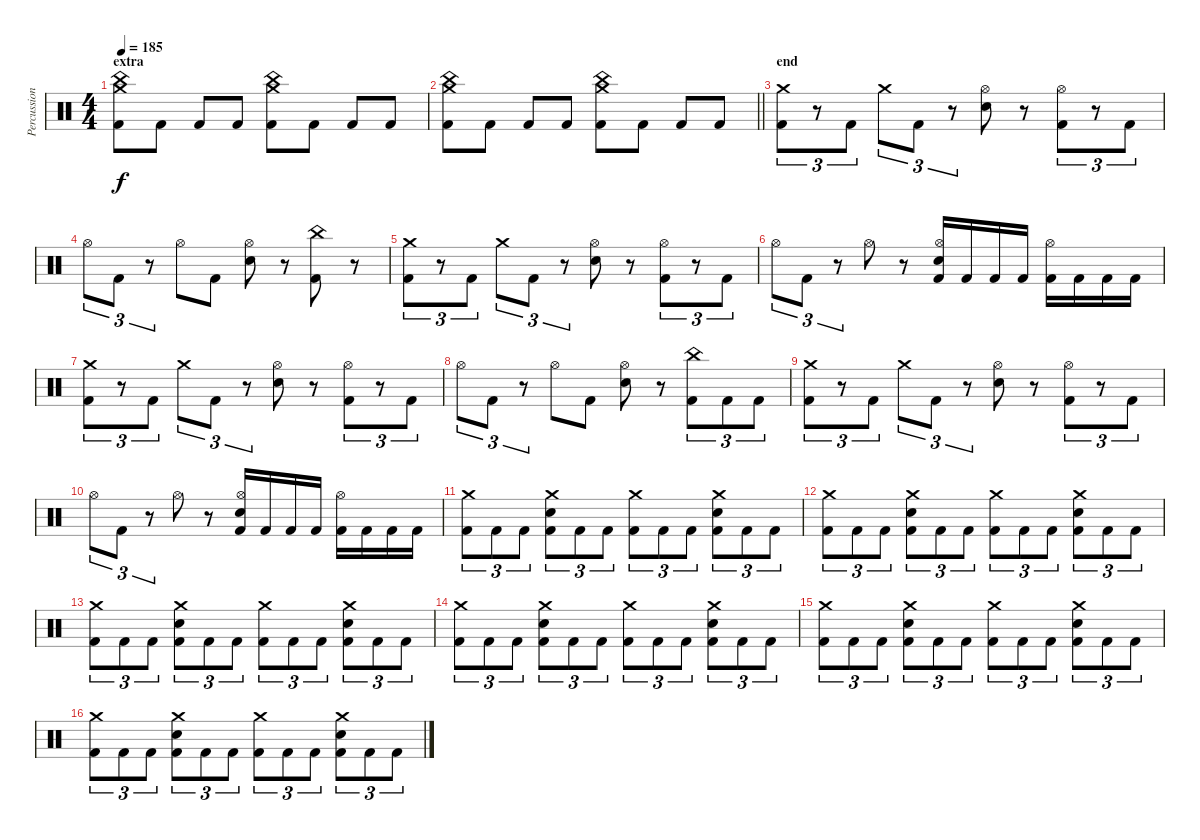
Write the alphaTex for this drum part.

\track ("Percussion" "Percussion") {instrument percussion}
\staff {score}
\articulation defaults
\ts (4 4)
\section ("" "extra")
\tempo 185
\clef neutral
\ks c
("Crash medium (hit)" "China (hit)" "Kick (hit) 2").8{dy f} "Kick (hit) 2".8 "Kick (hit) 2".8 "Kick (hit) 2".8 ("Crash medium (hit)" "China (hit)" "Kick (hit) 2").8 "Kick (hit) 2".8 "Kick (hit) 2".8 "Kick (hit) 2".8 |
\barLineRight lightlight
("Crash medium (hit)" "China (hit)" "Kick (hit) 2").8 "Kick (hit) 2".8 "Kick (hit) 2".8 "Kick (hit) 2".8 ("Crash medium (hit)" "China (hit)" "Kick (hit) 2").8 "Kick (hit) 2".8 "Kick (hit) 2".8 "Kick (hit) 2".8 |
\section ("" "end")
("Crash medium (hit)" "Kick (hit) 2").8{tu (3 2)} r.8{tu (3 2)} "Kick (hit) 2".8{tu (3 2)} "Crash medium (hit)".8{tu (3 2)} "Kick (hit) 2".8{tu (3 2)} r.8{tu (3 2)} ("Hi-Hat (open)" "Electric Snare (hit)").8 r.8 ("Hi-Hat (open)" "Kick (hit) 2").8{tu (3 2)} r.8{tu (3 2)} "Kick (hit) 2".8{tu (3 2)} |
"Hi-Hat (open)".8{tu (3 2)} "Kick (hit) 2".8{tu (3 2)} r.8{tu (3 2)} "Hi-Hat (open)".8 "Kick (hit) 2".8 ("Hi-Hat (open)" "Electric Snare (hit)").8 r.8 ("China (hit)" "Kick (hit) 2").8 r.8 |
("Crash medium (hit)" "Kick (hit) 2").8{tu (3 2)} r.8{tu (3 2)} "Kick (hit) 2".8{tu (3 2)} "Crash medium (hit)".8{tu (3 2)} "Kick (hit) 2".8{tu (3 2)} r.8{tu (3 2)} ("Hi-Hat (open)" "Electric Snare (hit)").8 r.8 ("Hi-Hat (open)" "Kick (hit) 2").8{tu (3 2)} r.8{tu (3 2)} "Kick (hit) 2".8{tu (3 2)} |
"Hi-Hat (open)".8{tu (3 2)} "Kick (hit) 2".8{tu (3 2)} r.8{tu (3 2)} "Hi-Hat (open)".8 r.8 ("Hi-Hat (open)" "Electric Snare (hit)" "Kick (hit) 2").16 "Kick (hit) 2".16 "Kick (hit) 2".16 "Kick (hit) 2".16 ("Hi-Hat (open)" "Kick (hit) 2").16 "Kick (hit) 2".16 "Kick (hit) 2".16 "Kick (hit) 2".16 |
("Crash medium (hit)" "Kick (hit) 2").8{tu (3 2)} r.8{tu (3 2)} "Kick (hit) 2".8{tu (3 2)} "Crash medium (hit)".8{tu (3 2)} "Kick (hit) 2".8{tu (3 2)} r.8{tu (3 2)} ("Hi-Hat (open)" "Electric Snare (hit)").8 r.8 ("Hi-Hat (open)" "Kick (hit) 2").8{tu (3 2)} r.8{tu (3 2)} "Kick (hit) 2".8{tu (3 2)} |
"Hi-Hat (open)".8{tu (3 2)} "Kick (hit) 2".8{tu (3 2)} r.8{tu (3 2)} "Hi-Hat (open)".8 "Kick (hit) 2".8 ("Hi-Hat (open)" "Electric Snare (hit)").8 r.8 ("China (hit)" "Kick (hit) 2").8{tu (3 2)} "Kick (hit) 2".8{tu (3 2)} "Kick (hit) 2".8{tu (3 2)} |
("Crash medium (hit)" "Kick (hit) 2").8{tu (3 2)} r.8{tu (3 2)} "Kick (hit) 2".8{tu (3 2)} "Crash medium (hit)".8{tu (3 2)} "Kick (hit) 2".8{tu (3 2)} r.8{tu (3 2)} ("Hi-Hat (open)" "Electric Snare (hit)").8 r.8 ("Hi-Hat (open)" "Kick (hit) 2").8{tu (3 2)} r.8{tu (3 2)} "Kick (hit) 2".8{tu (3 2)} |
"Hi-Hat (open)".8{tu (3 2)} "Kick (hit) 2".8{tu (3 2)} r.8{tu (3 2)} "Hi-Hat (open)".8 r.8 ("Hi-Hat (open)" "Electric Snare (hit)" "Kick (hit) 2").16 "Kick (hit) 2".16 "Kick (hit) 2".16 "Kick (hit) 2".16 ("Hi-Hat (open)" "Kick (hit) 2").16 "Kick (hit) 2".16 "Kick (hit) 2".16 "Kick (hit) 2".16 |
("Crash medium (hit)" "Kick (hit) 2").8{tu (3 2)} "Kick (hit) 2".8{tu (3 2)} "Kick (hit) 2".8{tu (3 2)} ("Crash medium (hit)" "Electric Snare (hit)" "Kick (hit) 2").8{tu (3 2)} "Kick (hit) 2".8{tu (3 2)} "Kick (hit) 2".8{tu (3 2)} ("Crash medium (hit)" "Kick (hit) 2").8{tu (3 2)} "Kick (hit) 2".8{tu (3 2)} "Kick (hit) 2".8{tu (3 2)} ("Crash medium (hit)" "Electric Snare (hit)" "Kick (hit) 2").8{tu (3 2)} "Kick (hit) 2".8{tu (3 2)} "Kick (hit) 2".8{tu (3 2)} |
("Crash medium (hit)" "Kick (hit) 2").8{tu (3 2)} "Kick (hit) 2".8{tu (3 2)} "Kick (hit) 2".8{tu (3 2)} ("Crash medium (hit)" "Electric Snare (hit)" "Kick (hit) 2").8{tu (3 2)} "Kick (hit) 2".8{tu (3 2)} "Kick (hit) 2".8{tu (3 2)} ("Crash medium (hit)" "Kick (hit) 2").8{tu (3 2)} "Kick (hit) 2".8{tu (3 2)} "Kick (hit) 2".8{tu (3 2)} ("Crash medium (hit)" "Electric Snare (hit)" "Kick (hit) 2").8{tu (3 2)} "Kick (hit) 2".8{tu (3 2)} "Kick (hit) 2".8{tu (3 2)} |
("Crash medium (hit)" "Kick (hit) 2").8{tu (3 2)} "Kick (hit) 2".8{tu (3 2)} "Kick (hit) 2".8{tu (3 2)} ("Crash medium (hit)" "Electric Snare (hit)" "Kick (hit) 2").8{tu (3 2)} "Kick (hit) 2".8{tu (3 2)} "Kick (hit) 2".8{tu (3 2)} ("Crash medium (hit)" "Kick (hit) 2").8{tu (3 2)} "Kick (hit) 2".8{tu (3 2)} "Kick (hit) 2".8{tu (3 2)} ("Crash medium (hit)" "Electric Snare (hit)" "Kick (hit) 2").8{tu (3 2)} "Kick (hit) 2".8{tu (3 2)} "Kick (hit) 2".8{tu (3 2)} |
("Crash medium (hit)" "Kick (hit) 2").8{tu (3 2)} "Kick (hit) 2".8{tu (3 2)} "Kick (hit) 2".8{tu (3 2)} ("Crash medium (hit)" "Electric Snare (hit)" "Kick (hit) 2").8{tu (3 2)} "Kick (hit) 2".8{tu (3 2)} "Kick (hit) 2".8{tu (3 2)} ("Crash medium (hit)" "Kick (hit) 2").8{tu (3 2)} "Kick (hit) 2".8{tu (3 2)} "Kick (hit) 2".8{tu (3 2)} ("Crash medium (hit)" "Electric Snare (hit)" "Kick (hit) 2").8{tu (3 2)} "Kick (hit) 2".8{tu (3 2)} "Kick (hit) 2".8{tu (3 2)} |
("Crash medium (hit)" "Kick (hit) 2").8{tu (3 2)} "Kick (hit) 2".8{tu (3 2)} "Kick (hit) 2".8{tu (3 2)} ("Crash medium (hit)" "Electric Snare (hit)" "Kick (hit) 2").8{tu (3 2)} "Kick (hit) 2".8{tu (3 2)} "Kick (hit) 2".8{tu (3 2)} ("Crash medium (hit)" "Kick (hit) 2").8{tu (3 2)} "Kick (hit) 2".8{tu (3 2)} "Kick (hit) 2".8{tu (3 2)} ("Crash medium (hit)" "Electric Snare (hit)" "Kick (hit) 2").8{tu (3 2)} "Kick (hit) 2".8{tu (3 2)} "Kick (hit) 2".8{tu (3 2)} |
("Crash medium (hit)" "Kick (hit) 2").8{tu (3 2)} "Kick (hit) 2".8{tu (3 2)} "Kick (hit) 2".8{tu (3 2)} ("Crash medium (hit)" "Electric Snare (hit)" "Kick (hit) 2").8{tu (3 2)} "Kick (hit) 2".8{tu (3 2)} "Kick (hit) 2".8{tu (3 2)} ("Crash medium (hit)" "Kick (hit) 2").8{tu (3 2)} "Kick (hit) 2".8{tu (3 2)} "Kick (hit) 2".8{tu (3 2)} ("Crash medium (hit)" "Electric Snare (hit)" "Kick (hit) 2").8{tu (3 2)} "Kick (hit) 2".8{tu (3 2)} "Kick (hit) 2".8{tu (3 2)}
